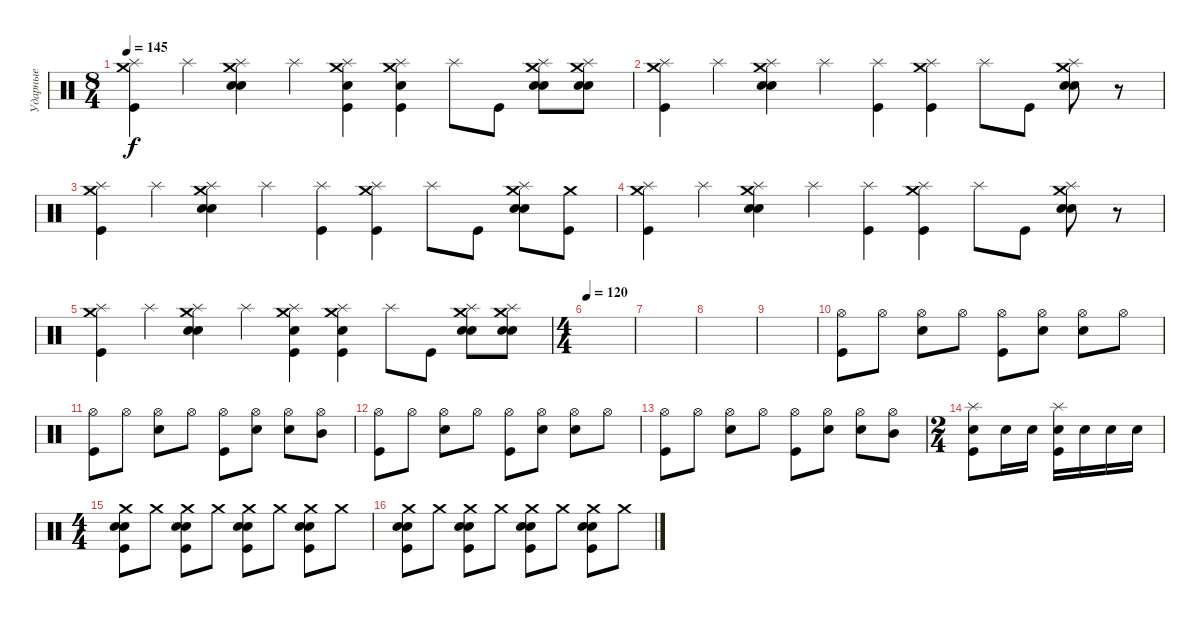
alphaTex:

\track ("Ударные" "Ударные") {instrument percussion}
\staff {score}
\articulation defaults
\ts (8 4)
\tempo 145
\clef neutral
\ks c
("Splash (hit)" "Crash medium (hit)" "Kick (hit)").4{dy f} "Splash (hit)".4 ("Splash (hit)" "Crash medium (hit)" "Electric Snare (hit)" "Electric Snare (hit)").4 "Splash (hit)".4 ("Splash (hit)" "Crash medium (hit)" "Electric Snare (hit)" "Kick (hit)").4 ("Splash (hit)" "Crash medium (hit)" "Electric Snare (hit)" "Kick (hit)").4 "Splash (hit)".8 "Kick (hit)".8 ("Splash (hit)" "Crash medium (hit)" "Electric Snare (hit)" "Electric Snare (hit)").8 ("Splash (hit)" "Crash medium (hit)" "Electric Snare (hit)" "Electric Snare (hit)").8 |
("Splash (hit)" "Crash medium (hit)" "Kick (hit)").4 "Splash (hit)".4 ("Splash (hit)" "Crash medium (hit)" "Electric Snare (hit)" "Electric Snare (hit)").4 "Splash (hit)".4 ("Splash (hit)" "Kick (hit)").4 ("Splash (hit)" "Crash medium (hit)" "Kick (hit)").4 "Splash (hit)".8 "Kick (hit)".8 ("Splash (hit)" "Crash medium (hit)" "Electric Snare (hit)" "Electric Snare (hit)").8 r.8 |
("Splash (hit)" "Crash medium (hit)" "Kick (hit)").4 "Splash (hit)".4 ("Splash (hit)" "Crash medium (hit)" "Electric Snare (hit)" "Electric Snare (hit)").4 "Splash (hit)".4 ("Splash (hit)" "Kick (hit)").4 ("Splash (hit)" "Crash medium (hit)" "Kick (hit)").4 "Splash (hit)".8 "Kick (hit)".8 ("Splash (hit)" "Crash medium (hit)" "Electric Snare (hit)" "Electric Snare (hit)").8 ("Crash medium (hit)" "Kick (hit)").8 |
("Splash (hit)" "Crash medium (hit)" "Kick (hit)").4 "Splash (hit)".4 ("Splash (hit)" "Crash medium (hit)" "Electric Snare (hit)" "Electric Snare (hit)").4 "Splash (hit)".4 ("Splash (hit)" "Kick (hit)").4 ("Splash (hit)" "Crash medium (hit)" "Kick (hit)").4 "Splash (hit)".8 "Kick (hit)".8 ("Splash (hit)" "Crash medium (hit)" "Electric Snare (hit)" "Electric Snare (hit)").8 r.8 |
("Splash (hit)" "Crash medium (hit)" "Kick (hit)").4 "Splash (hit)".4 ("Splash (hit)" "Crash medium (hit)" "Electric Snare (hit)" "Electric Snare (hit)").4 "Splash (hit)".4 ("Splash (hit)" "Crash medium (hit)" "Electric Snare (hit)" "Kick (hit)").4 ("Splash (hit)" "Crash medium (hit)" "Electric Snare (hit)" "Kick (hit)").4 "Splash (hit)".8 "Kick (hit)".8 ("Splash (hit)" "Crash medium (hit)" "Electric Snare (hit)" "Electric Snare (hit)").8 ("Splash (hit)" "Crash medium (hit)" "Electric Snare (hit)" "Electric Snare (hit)").8 |
\ts (4 4)
\tempo 120
|
|
|
|
("Hi-Hat (open)" "Kick (hit)").8 "Hi-Hat (open)".8 ("Hi-Hat (open)" "Snare (hit) 2").8 "Hi-Hat (open)".8 ("Hi-Hat (open)" "Kick (hit)").8 ("Hi-Hat (open)" "Electric Snare (hit)").8 ("Hi-Hat (open)" "Snare (hit) 2").8 "Hi-Hat (open)".8 |
("Hi-Hat (open)" "Kick (hit)").8 "Hi-Hat (open)".8 ("Hi-Hat (open)" "Snare (hit) 2").8 "Hi-Hat (open)".8 ("Hi-Hat (open)" "Kick (hit)").8 ("Hi-Hat (open)" "Electric Snare (hit)").8 ("Hi-Hat (open)" "Snare (hit) 2").8 ("Hi-Hat (open)" "Mid Tom (hit)").8 |
("Hi-Hat (open)" "Kick (hit)").8 "Hi-Hat (open)".8 ("Hi-Hat (open)" "Snare (hit) 2").8 "Hi-Hat (open)".8 ("Hi-Hat (open)" "Kick (hit)").8 ("Hi-Hat (open)" "Electric Snare (hit)").8 ("Hi-Hat (open)" "Snare (hit) 2").8 "Hi-Hat (open)".8 |
("Hi-Hat (open)" "Kick (hit)").8 "Hi-Hat (open)".8 ("Hi-Hat (open)" "Snare (hit) 2").8 "Hi-Hat (open)".8 ("Hi-Hat (open)" "Kick (hit)").8 ("Hi-Hat (open)" "Electric Snare (hit)").8 ("Hi-Hat (open)" "Snare (hit) 2").8 ("Hi-Hat (open)" "Mid Tom (hit)").8 |
\ts (2 4)
("Splash (hit)" "Snare (hit) 2" "Kick (hit)").8 "Snare (hit) 2".16 "Snare (hit) 2".16 ("Splash (hit)" "Snare (hit) 2" "Kick (hit)").16 "Electric Snare (hit)".16 "Snare (hit) 2".16 "Electric Snare (hit)".16 |
\ts (4 4)
("Crash medium (hit)" "Electric Snare (hit)" "Electric Snare (hit)" "Kick (hit)").8 "Crash medium (hit)".8 ("Crash medium (hit)" "Electric Snare (hit)" "Electric Snare (hit)" "Kick (hit)").8 "Crash medium (hit)".8 ("Crash medium (hit)" "Electric Snare (hit)" "Electric Snare (hit)" "Kick (hit)").8 "Crash medium (hit)".8 ("Crash medium (hit)" "Electric Snare (hit)" "Electric Snare (hit)" "Kick (hit)").8 "Crash medium (hit)".8 |
("Crash medium (hit)" "Electric Snare (hit)" "Electric Snare (hit)" "Kick (hit)").8 "Crash medium (hit)".8 ("Crash medium (hit)" "Electric Snare (hit)" "Electric Snare (hit)" "Kick (hit)").8 "Crash medium (hit)".8 ("Crash medium (hit)" "Electric Snare (hit)" "Electric Snare (hit)" "Kick (hit)").8 "Crash medium (hit)".8 ("Crash medium (hit)" "Electric Snare (hit)" "Electric Snare (hit)" "Kick (hit)").8 "Crash medium (hit)".8
